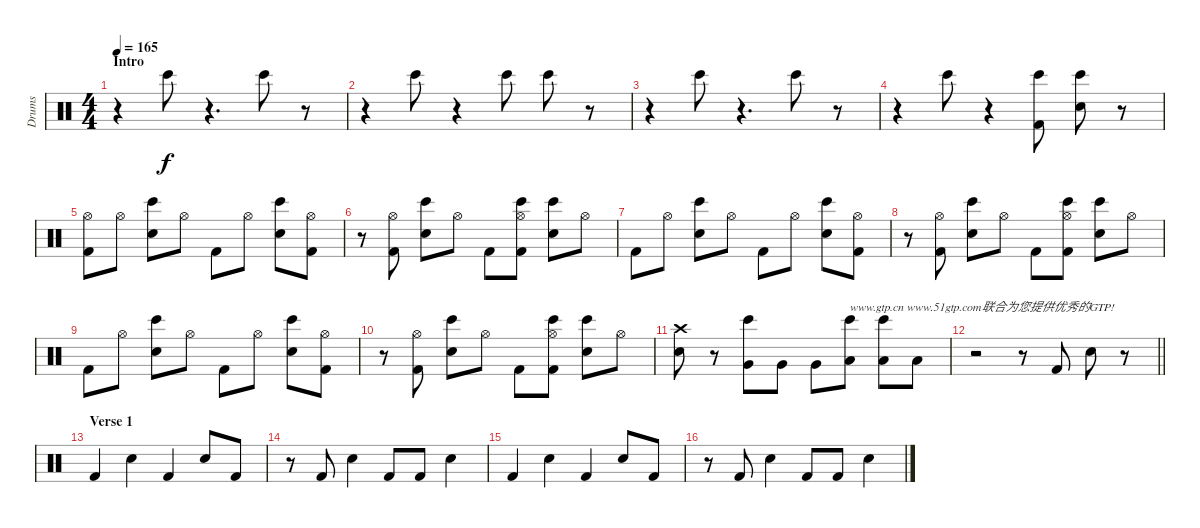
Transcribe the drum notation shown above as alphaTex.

\track ("Drums" "Drums") {instrument percussion}
\staff {score}
\articulation defaults
\ts (4 4)
\section ("" "Intro")
\tempo 165
\clef neutral
\ks c
r.4{dy f} "Bongo High (hit)".8 r.4{d} "Bongo High (hit)".8 r.8 |
r.4 "Bongo High (hit)".8 r.4 "Bongo High (hit)".8 "Bongo High (hit)".8 r.8 |
r.4 "Bongo High (hit)".8 r.4{d} "Bongo High (hit)".8 r.8 |
r.4 "Bongo High (hit)".8 r.4 ("Bongo High (hit)" "Kick (hit) 2").8 ("Bongo High (hit)" "Electric Snare (hit)").8 r.8 |
("Hi-Hat (open)" "Kick (hit) 2").8 "Hi-Hat (open)".8 ("Electric Snare (hit)" "Bongo High (hit)").8 "Hi-Hat (open)".8 "Kick (hit) 2".8 "Hi-Hat (open)".8 ("Electric Snare (hit)" "Bongo High (hit)").8 ("Hi-Hat (open)" "Kick (hit) 2").8 |
r.8 ("Hi-Hat (open)" "Kick (hit) 2").8 ("Electric Snare (hit)" "Bongo High (hit)").8 "Hi-Hat (open)".8 "Kick (hit) 2".8 ("Hi-Hat (open)" "Kick (hit) 2" "Bongo High (hit)").8 ("Electric Snare (hit)" "Bongo High (hit)").8 "Hi-Hat (open)".8 |
"Kick (hit) 2".8 "Hi-Hat (open)".8 ("Electric Snare (hit)" "Bongo High (hit)").8 "Hi-Hat (open)".8 "Kick (hit) 2".8 "Hi-Hat (open)".8 ("Electric Snare (hit)" "Bongo High (hit)").8 ("Hi-Hat (open)" "Kick (hit) 2").8 |
r.8 ("Hi-Hat (open)" "Kick (hit) 2").8 ("Electric Snare (hit)" "Bongo High (hit)").8 "Hi-Hat (open)".8 "Kick (hit) 2".8 ("Hi-Hat (open)" "Kick (hit) 2" "Bongo High (hit)").8 ("Electric Snare (hit)" "Bongo High (hit)").8 "Hi-Hat (open)".8 |
"Kick (hit) 2".8 "Hi-Hat (open)".8 ("Electric Snare (hit)" "Bongo High (hit)").8 "Hi-Hat (open)".8 "Kick (hit) 2".8 "Hi-Hat (open)".8 ("Electric Snare (hit)" "Bongo High (hit)").8 ("Hi-Hat (open)" "Kick (hit) 2").8 |
r.8 ("Hi-Hat (open)" "Kick (hit) 2").8 ("Electric Snare (hit)" "Bongo High (hit)").8 "Hi-Hat (open)".8 "Kick (hit) 2".8 ("Hi-Hat (open)" "Kick (hit) 2" "Bongo High (hit)").8 ("Electric Snare (hit)" "Bongo High (hit)").8 "Hi-Hat (open)".8 |
("Crash high (hit)" "Electric Snare (hit)").8 r.8 ("Very Low Tom (hit)" "Bongo High (hit)").8 "Very Low Tom (hit)".8 "Very Low Tom (hit)".8 ("Low Floor Tom (hit)" "Bongo High (hit)").8{txt "www.gtp.cn www.51gtp.com联合为您提供优秀的GTP!"} ("Low Floor Tom (hit)" "Bongo High (hit)").8 "Low Floor Tom (hit)".8 |
\barLineRight lightlight
r.2 r.8 "Kick (hit) 2".8 "Electric Snare (hit)".8 r.8 |
\section ("" "Verse 1")
"Kick (hit) 2".4 "Electric Snare (hit)".4 "Kick (hit) 2".4 "Electric Snare (hit)".8 "Kick (hit) 2".8 |
r.8 "Kick (hit) 2".8 "Electric Snare (hit)".4 "Kick (hit) 2".8 "Kick (hit) 2".8 "Electric Snare (hit)".4 |
"Kick (hit) 2".4 "Electric Snare (hit)".4 "Kick (hit) 2".4 "Electric Snare (hit)".8 "Kick (hit) 2".8 |
r.8 "Kick (hit) 2".8 "Electric Snare (hit)".4 "Kick (hit) 2".8 "Kick (hit) 2".8 "Electric Snare (hit)".4
